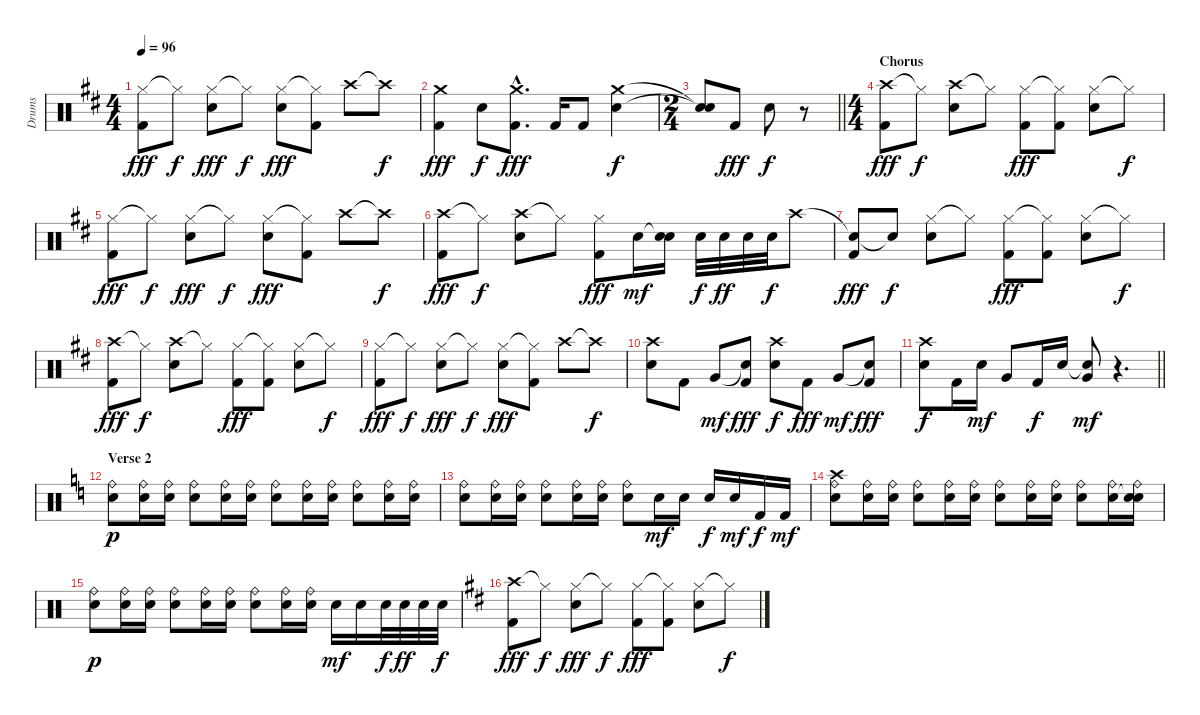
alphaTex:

\track ("Drums" "Drums") {instrument percussion}
\staff {score}
\articulation defaults
\ts (4 4)
\tempo 96
\clef neutral
\ks d
("Hi-Hat (closed)" "Kick (hit) 2").8{dy fff} "Hi-Hat (closed)"{t}.8{dy f} ("Hi-Hat (closed)" "Snare (hit) 2").8{dy fff} "Hi-Hat (closed)"{t}.8{dy f} ("Hi-Hat (closed)" "Snare (hit) 2").8{dy fff} ("Hi-Hat (closed)"{t} "Kick (hit) 2").8 "Crash high (hit)".8 "Crash high (hit)"{t}.8{dy f} |
("Crash medium (hit)" "Kick (hit) 2").4{dy fff} "Snare (hit) 2".8{dy f} ("Crash medium (hit)"{hac} "Kick (hit) 2"{hac}).8{d dy fff} "Kick (hit) 2".16 "Kick (hit) 2".8 ("Crash medium (hit)" "Snare (hit) 2").4{dy f} |
\ts (2 4)
\barLineRight lightlight
("Snare (hit)"{t} "Snare (hit)"{t}).8 "Kick (hit) 2".8{dy fff} "Snare (hit) 2".8{dy f} r.8 |
\ts (4 4)
\section ("" "Chorus")
("Crash high (hit)" "Kick (hit) 2").8{dy fff} "Hi-Hat (closed)"{t}.8{dy f} ("Crash high (hit)" "Snare (hit) 2").8 "Hi-Hat (closed)"{t}.8 ("Hi-Hat (closed)" "Kick (hit) 2").8{dy fff} ("Hi-Hat (closed)"{t} "Kick (hit) 2").8 ("Hi-Hat (closed)" "Snare (hit) 2").8 "Hi-Hat (closed)"{t}.8{dy f} |
("Hi-Hat (closed)" "Kick (hit) 2").8{dy fff} "Hi-Hat (closed)"{t}.8{dy f} ("Hi-Hat (closed)" "Snare (hit) 2").8{dy fff} "Hi-Hat (closed)"{t}.8{dy f} ("Hi-Hat (closed)" "Snare (hit) 2").8{dy fff} ("Hi-Hat (closed)"{t} "Kick (hit) 2").8 "Crash high (hit)".8 "Crash high (hit)"{t}.8{dy f} |
("Crash high (hit)" "Kick (hit) 2").8{dy fff} "Hi-Hat (closed)"{t}.8{dy f} ("Crash high (hit)" "Snare (hit) 2").8 "Hi-Hat (closed)"{t}.8 ("Hi-Hat (closed)" "Kick (hit) 2").8{dy fff} "Snare (hit) 2".16{dy mf} ("Snare (hit)"{t} "Snare (hit) 2").16 "Snare (hit) 2".32{dy f} "Snare (hit) 2".32{dy ff} "Snare (hit) 2".32 "Snare (hit) 2".32{dy f} "Crash high (hit)".8 |
("Snare (hit)"{t} "Kick (hit) 2").8{dy fff} "Snare (hit)"{t}.8{dy f} ("Hi-Hat (closed)" "Snare (hit) 2").8 "Hi-Hat (closed)"{t}.8 ("Hi-Hat (closed)" "Kick (hit) 2").8{dy fff} ("Hi-Hat (closed)"{t} "Kick (hit) 2").8 ("Hi-Hat (closed)" "Snare (hit) 2").8 "Hi-Hat (closed)"{t}.8{dy f} |
("Crash high (hit)" "Kick (hit) 2").8{dy fff} "Hi-Hat (closed)"{t}.8{dy f} ("Crash high (hit)" "Snare (hit) 2").8 "Hi-Hat (closed)"{t}.8 ("Hi-Hat (closed)" "Kick (hit) 2").8{dy fff} ("Hi-Hat (closed)"{t} "Kick (hit) 2").8 ("Hi-Hat (closed)" "Snare (hit) 2").8 "Hi-Hat (closed)"{t}.8{dy f} |
("Hi-Hat (closed)" "Kick (hit) 2").8{dy fff} "Hi-Hat (closed)"{t}.8{dy f} ("Hi-Hat (closed)" "Snare (hit) 2").8{dy fff} "Hi-Hat (closed)"{t}.8{dy f} ("Hi-Hat (closed)" "Snare (hit) 2").8{dy fff} ("Hi-Hat (closed)"{t} "Kick (hit) 2").8 "Crash high (hit)".8 "Crash high (hit)"{t}.8{dy f} |
("Crash high (hit)" "Snare (hit) 2").8 "Kick (hit) 2".8 "Very Low Tom (hit)".8{dy mf} ("Snare (hit)"{t} "Kick (hit) 2").8{dy fff} ("Crash high (hit)" "Snare (hit) 2").8{dy f} "Kick (hit) 2".8{dy fff} "Very Low Tom (hit)".8{dy mf} ("Snare (hit)"{t} "Kick (hit) 2").8{dy fff} |
\barLineRight lightlight
("Crash high (hit)" "Snare (hit) 2").8{dy f} "Kick (hit) 2".16 "Snare (hit) 2".16{dy mf} "Very Low Tom (hit)".8 "Kick (hit) 2".16{dy f} "Snare (hit) 2".16 ("Snare (hit)"{t} "Very Low Tom (hit)").8{dy mf} r.4{d} |
\section ("" "Verse 2")
\ks c
("Ride (bell)" "Snare (hit) 2").8{dy p} ("Ride (bell)" "Snare (hit) 2").16 ("Ride (bell)" "Snare (hit) 2").16 ("Ride (bell)" "Snare (hit) 2").8 ("Ride (bell)" "Snare (hit) 2").16 ("Ride (bell)" "Snare (hit) 2").16 ("Ride (bell)" "Snare (hit) 2").8 ("Ride (bell)" "Snare (hit) 2").16 ("Ride (bell)" "Snare (hit) 2").16 ("Ride (bell)" "Snare (hit) 2").8 ("Ride (bell)" "Snare (hit) 2").16 ("Ride (bell)" "Snare (hit) 2").16 |
("Ride (bell)" "Snare (hit) 2").8 ("Ride (bell)" "Snare (hit) 2").16 ("Ride (bell)" "Snare (hit) 2").16 ("Ride (bell)" "Snare (hit) 2").8 ("Ride (bell)" "Snare (hit) 2").16 ("Ride (bell)" "Snare (hit) 2").16 ("Ride (bell)" "Snare (hit) 2").8 "Snare (hit) 2".16{dy mf} "Snare (hit) 2".16 "Snare (hit) 2".16{dy f} "Snare (hit) 2".16{dy mf} "Kick (hit) 2".16{dy f} "Kick (hit) 2".16{dy mf} |
("Crash high (hit)" "Snare (hit) 2" "Ride (bell)").8 ("Snare (hit) 2" "Ride (bell)").16 ("Snare (hit) 2" "Ride (bell)").16 ("Snare (hit) 2" "Ride (bell)").8 ("Snare (hit) 2" "Ride (bell)").16 ("Snare (hit) 2" "Ride (bell)").16 ("Snare (hit) 2" "Ride (bell)").8 ("Snare (hit) 2" "Ride (bell)").16 ("Snare (hit) 2" "Ride (bell)").16 ("Snare (hit) 2" "Ride (bell)").8 ("Snare (hit) 2" "Ride (bell)").16 ("Snare (hit)"{t} "Snare (hit) 2" "Ride (bell)").16 |
("Ride (bell)" "Snare (hit) 2").8{dy p} ("Ride (bell)" "Snare (hit) 2").16 ("Ride (bell)" "Snare (hit) 2").16 ("Ride (bell)" "Snare (hit) 2").8 ("Ride (bell)" "Snare (hit) 2").16 ("Ride (bell)" "Snare (hit) 2").16 ("Ride (bell)" "Snare (hit) 2").8 ("Ride (bell)" "Snare (hit) 2").16 ("Ride (bell)" "Snare (hit) 2").16 "Snare (hit) 2".16{dy mf} "Snare (hit) 2".16 "Snare (hit) 2".32{dy f} "Snare (hit) 2".32{dy ff} "Snare (hit) 2".32 "Snare (hit) 2".32{dy f} |
\ks d
("Crash high (hit)" "Kick (hit) 2").8{dy fff} "Hi-Hat (closed)"{t}.8{dy f} ("Hi-Hat (closed)" "Snare (hit) 2").8{dy fff} "Hi-Hat (closed)"{t}.8{dy f} ("Hi-Hat (closed)" "Kick (hit) 2").8{dy fff} ("Hi-Hat (closed)"{t} "Kick (hit) 2").8 ("Hi-Hat (closed)" "Snare (hit) 2").8 "Hi-Hat (closed)"{t}.8{dy f}
